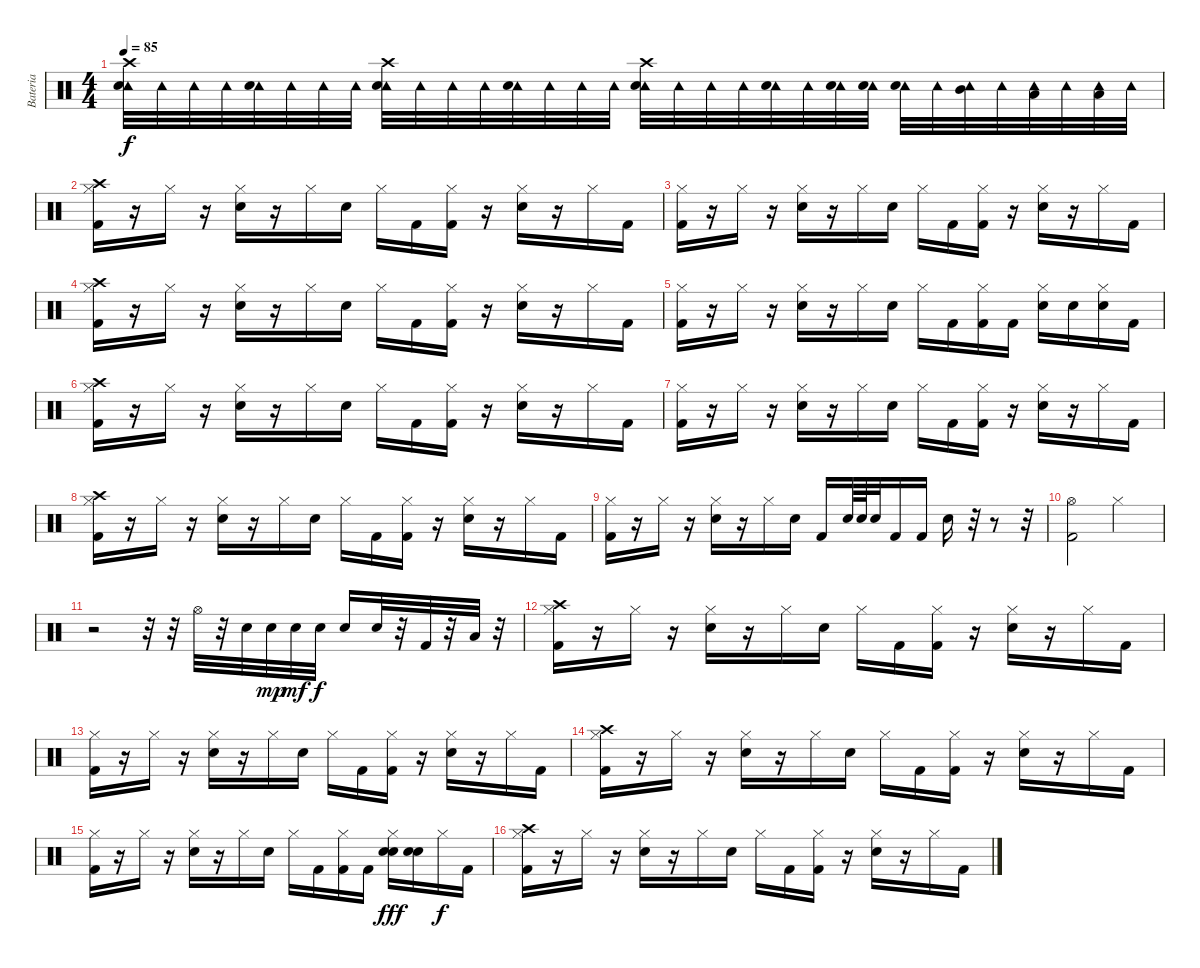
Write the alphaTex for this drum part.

\track ("Bateria" "Bateria") {instrument percussion}
\staff {score}
\articulation defaults
\ts (4 4)
\tempo 85
\clef neutral
\ks c
("Crash high (hit)" "Tambourine (hit)" "Snare (hit) 2").32{dy f} "Tambourine (hit)".32 "Tambourine (hit)".32 "Tambourine (hit)".32 ("Tambourine (hit)" "Snare (hit) 2").32 "Tambourine (hit)".32 "Tambourine (hit)".32 "Tambourine (hit)".32 ("Crash high (hit)" "Tambourine (hit)" "Snare (hit) 2").32 "Tambourine (hit)".32 "Tambourine (hit)".32 "Tambourine (hit)".32 ("Tambourine (hit)" "Snare (hit) 2").32 "Tambourine (hit)".32 "Tambourine (hit)".32 "Tambourine (hit)".32 ("Crash high (hit)" "Tambourine (hit)" "Snare (hit) 2").32 "Tambourine (hit)".32 "Tambourine (hit)".32 "Tambourine (hit)".32 ("Tambourine (hit)" "Snare (hit) 2").32 "Tambourine (hit)".32 ("Tambourine (hit)" "Snare (hit) 2").32 ("Tambourine (hit)" "Snare (hit) 2").32 ("Tambourine (hit)" "Snare (hit) 2").32 "Tambourine (hit)".32 ("Tambourine (hit)" "Mid Tom (hit)").32 "Tambourine (hit)".32 ("Tambourine (hit)" "Low Tom (hit)").32 "Tambourine (hit)".32 ("Tambourine (hit)" "Low Tom (hit)").32 "Tambourine (hit)".32 |
("Crash high (hit)" "Hi-Hat (closed)" "Kick (hit) 2").16 r.16 "Hi-Hat (closed)".16 r.16 ("Hi-Hat (closed)" "Snare (hit) 2").16 r.16 "Hi-Hat (closed)".16 "Snare (hit) 2".16 "Hi-Hat (closed)".16 "Kick (hit) 2".16 ("Hi-Hat (closed)" "Kick (hit) 2").16 r.16 ("Hi-Hat (closed)" "Snare (hit) 2").16 r.16 "Hi-Hat (closed)".16 "Kick (hit) 2".16 |
("Hi-Hat (closed)" "Kick (hit) 2").16 r.16 "Hi-Hat (closed)".16 r.16 ("Hi-Hat (closed)" "Snare (hit) 2").16 r.16 "Hi-Hat (closed)".16 "Snare (hit) 2".16 "Hi-Hat (closed)".16 "Kick (hit) 2".16 ("Hi-Hat (closed)" "Kick (hit) 2").16 r.16 ("Hi-Hat (closed)" "Snare (hit) 2").16 r.16 "Hi-Hat (closed)".16 "Kick (hit) 2".16 |
("Crash high (hit)" "Hi-Hat (closed)" "Kick (hit) 2").16 r.16 "Hi-Hat (closed)".16 r.16 ("Hi-Hat (closed)" "Snare (hit) 2").16 r.16 "Hi-Hat (closed)".16 "Snare (hit) 2".16 "Hi-Hat (closed)".16 "Kick (hit) 2".16 ("Hi-Hat (closed)" "Kick (hit) 2").16 r.16 ("Hi-Hat (closed)" "Snare (hit) 2").16 r.16 "Hi-Hat (closed)".16 "Kick (hit) 2".16 |
("Hi-Hat (closed)" "Kick (hit) 2").16 r.16 "Hi-Hat (closed)".16 r.16 ("Hi-Hat (closed)" "Snare (hit) 2").16 r.16 "Hi-Hat (closed)".16 "Snare (hit) 2".16 "Hi-Hat (closed)".16 "Kick (hit) 2".16 ("Hi-Hat (closed)" "Kick (hit) 2").16 "Kick (hit) 2".16 ("Hi-Hat (closed)" "Snare (hit) 2").16 "Snare (hit) 2".16 ("Hi-Hat (closed)" "Snare (hit) 2").16 "Kick (hit) 2".16 |
("Crash high (hit)" "Hi-Hat (closed)" "Kick (hit) 2").16 r.16 "Hi-Hat (closed)".16 r.16 ("Hi-Hat (closed)" "Snare (hit) 2").16 r.16 "Hi-Hat (closed)".16 "Snare (hit) 2".16 "Hi-Hat (closed)".16 "Kick (hit) 2".16 ("Hi-Hat (closed)" "Kick (hit) 2").16 r.16 ("Hi-Hat (closed)" "Snare (hit) 2").16 r.16 "Hi-Hat (closed)".16 "Kick (hit) 2".16 |
("Hi-Hat (closed)" "Kick (hit) 2").16 r.16 "Hi-Hat (closed)".16 r.16 ("Hi-Hat (closed)" "Snare (hit) 2").16 r.16 "Hi-Hat (closed)".16 "Snare (hit) 2".16 "Hi-Hat (closed)".16 "Kick (hit) 2".16 ("Hi-Hat (closed)" "Kick (hit) 2").16 r.16 ("Hi-Hat (closed)" "Snare (hit) 2").16 r.16 "Hi-Hat (closed)".16 "Kick (hit) 2".16 |
("Crash high (hit)" "Hi-Hat (closed)" "Kick (hit) 2").16 r.16 "Hi-Hat (closed)".16 r.16 ("Hi-Hat (closed)" "Snare (hit) 2").16 r.16 "Hi-Hat (closed)".16 "Snare (hit) 2".16 "Hi-Hat (closed)".16 "Kick (hit) 2".16 ("Hi-Hat (closed)" "Kick (hit) 2").16 r.16 ("Hi-Hat (closed)" "Snare (hit) 2").16 r.16 "Hi-Hat (closed)".16 "Kick (hit) 2".16 |
("Hi-Hat (closed)" "Kick (hit) 2").16 r.16 "Hi-Hat (closed)".16 r.16 ("Hi-Hat (closed)" "Snare (hit) 2").16 r.16 "Hi-Hat (closed)".16 "Snare (hit) 2".16 "Kick (hit) 2".16 "Snare (hit) 2".64 "Snare (hit) 2".64 "Snare (hit) 2".32 "Kick (hit) 2".16 "Kick (hit) 2".16 "Snare (hit) 2".16 r.32 r.8 r.32 |
("Hi-Hat (open)" "Kick (hit) 2").2 "Hi-Hat (closed)".2 |
r.2 r.32 r.32 "Hi-Hat (open)".32 r.32 "Snare (hit) 2".32 "Snare (hit) 2".32{dy mp} "Snare (hit) 2".32{dy mf} "Snare (hit) 2".32{dy f} "Snare (hit) 2".16 "Snare (hit) 2".32 r.32 "Kick (hit) 2".32 r.32 "Low Tom (hit)".32 r.32 |
("Crash high (hit)" "Hi-Hat (closed)" "Kick (hit) 2").16 r.16 "Hi-Hat (closed)".16 r.16 ("Hi-Hat (closed)" "Snare (hit) 2").16 r.16 "Hi-Hat (closed)".16 "Snare (hit) 2".16 "Hi-Hat (closed)".16 "Kick (hit) 2".16 ("Hi-Hat (closed)" "Kick (hit) 2").16 r.16 ("Hi-Hat (closed)" "Snare (hit) 2").16 r.16 "Hi-Hat (closed)".16 "Kick (hit) 2".16 |
("Hi-Hat (closed)" "Kick (hit) 2").16 r.16 "Hi-Hat (closed)".16 r.16 ("Hi-Hat (closed)" "Snare (hit) 2").16 r.16 "Hi-Hat (closed)".16 "Snare (hit) 2".16 "Hi-Hat (closed)".16 "Kick (hit) 2".16 ("Hi-Hat (closed)" "Kick (hit) 2").16 r.16 ("Hi-Hat (closed)" "Snare (hit) 2").16 r.16 "Hi-Hat (closed)".16 "Kick (hit) 2".16 |
("Crash high (hit)" "Hi-Hat (closed)" "Kick (hit) 2").16 r.16 "Hi-Hat (closed)".16 r.16 ("Hi-Hat (closed)" "Snare (hit) 2").16 r.16 "Hi-Hat (closed)".16 "Snare (hit) 2".16 "Hi-Hat (closed)".16 "Kick (hit) 2".16 ("Hi-Hat (closed)" "Kick (hit) 2").16 r.16 ("Hi-Hat (closed)" "Snare (hit) 2").16 r.16 "Hi-Hat (closed)".16 "Kick (hit) 2".16 |
("Hi-Hat (closed)" "Kick (hit) 2").16 r.16 "Hi-Hat (closed)".16 r.16 ("Hi-Hat (closed)" "Snare (hit) 2").16 r.16 "Hi-Hat (closed)".16 "Snare (hit) 2".16 "Hi-Hat (closed)".16 "Kick (hit) 2".16 ("Hi-Hat (closed)" "Kick (hit) 2").16 "Kick (hit) 2".16 ("Snare (hit) 2" "Hi-Hat (closed)" "Snare (hit) 2").16{dy fff} ("Snare (hit) 2" "Snare (hit) 2").16 "Hi-Hat (closed)".16{dy f} "Kick (hit) 2".16 |
("Crash high (hit)" "Hi-Hat (closed)" "Kick (hit) 2").16 r.16 "Hi-Hat (closed)".16 r.16 ("Hi-Hat (closed)" "Snare (hit) 2").16 r.16 "Hi-Hat (closed)".16 "Snare (hit) 2".16 "Hi-Hat (closed)".16 "Kick (hit) 2".16 ("Hi-Hat (closed)" "Kick (hit) 2").16 r.16 ("Hi-Hat (closed)" "Snare (hit) 2").16 r.16 "Hi-Hat (closed)".16 "Kick (hit) 2".16
